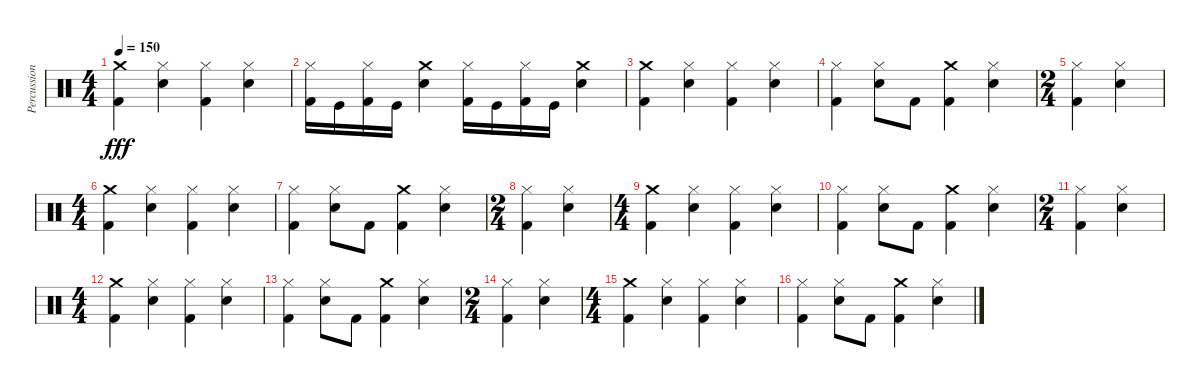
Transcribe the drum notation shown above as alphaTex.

\track ("Percussion" "Percussion") {instrument percussion}
\staff {score}
\articulation defaults
\ts (4 4)
\tempo 150
\clef neutral
\ks c
("Kick (hit) 2" "Crash medium (hit)").4{dy fff} ("Hi-Hat (closed)" "Snare (hit) 2").4 ("Hi-Hat (closed)" "Kick (hit) 2").4 ("Snare (hit) 2" "Hi-Hat (closed)").4 |
("Kick (hit) 2" "Hi-Hat (closed)").16 "Kick (hit)".16 ("Kick (hit) 2" "Hi-Hat (closed)").16 "Kick (hit)".16 ("Snare (hit) 2" "Crash medium (hit)").4 ("Kick (hit) 2" "Hi-Hat (closed)").16 "Kick (hit)".16 ("Kick (hit) 2" "Hi-Hat (closed)").16 "Kick (hit)".16 ("Crash medium (hit)" "Snare (hit) 2").4 |
("Kick (hit) 2" "Crash medium (hit)").4 ("Hi-Hat (closed)" "Snare (hit) 2").4 ("Hi-Hat (closed)" "Kick (hit) 2").4 ("Snare (hit) 2" "Hi-Hat (closed)").4 |
("Hi-Hat (closed)" "Kick (hit) 2").4 ("Snare (hit) 2" "Hi-Hat (closed)").8 "Kick (hit) 2".8 ("Kick (hit) 2" "Crash medium (hit)").4 ("Hi-Hat (closed)" "Snare (hit) 2").4 |
\ts (2 4)
("Hi-Hat (closed)" "Kick (hit) 2").4 ("Snare (hit) 2" "Hi-Hat (closed)").4 |
\ts (4 4)
("Kick (hit) 2" "Crash medium (hit)").4 ("Hi-Hat (closed)" "Snare (hit) 2").4 ("Hi-Hat (closed)" "Kick (hit) 2").4 ("Snare (hit) 2" "Hi-Hat (closed)").4 |
("Hi-Hat (closed)" "Kick (hit) 2").4 ("Snare (hit) 2" "Hi-Hat (closed)").8 "Kick (hit) 2".8 ("Kick (hit) 2" "Crash medium (hit)").4 ("Hi-Hat (closed)" "Snare (hit) 2").4 |
\ts (2 4)
("Hi-Hat (closed)" "Kick (hit) 2").4 ("Snare (hit) 2" "Hi-Hat (closed)").4 |
\ts (4 4)
("Kick (hit) 2" "Crash medium (hit)").4 ("Hi-Hat (closed)" "Snare (hit) 2").4 ("Hi-Hat (closed)" "Kick (hit) 2").4 ("Snare (hit) 2" "Hi-Hat (closed)").4 |
("Hi-Hat (closed)" "Kick (hit) 2").4 ("Snare (hit) 2" "Hi-Hat (closed)").8 "Kick (hit) 2".8 ("Kick (hit) 2" "Crash medium (hit)").4 ("Hi-Hat (closed)" "Snare (hit) 2").4 |
\ts (2 4)
("Hi-Hat (closed)" "Kick (hit) 2").4 ("Snare (hit) 2" "Hi-Hat (closed)").4 |
\ts (4 4)
("Kick (hit) 2" "Crash medium (hit)").4 ("Hi-Hat (closed)" "Snare (hit) 2").4 ("Hi-Hat (closed)" "Kick (hit) 2").4 ("Snare (hit) 2" "Hi-Hat (closed)").4 |
("Hi-Hat (closed)" "Kick (hit) 2").4 ("Snare (hit) 2" "Hi-Hat (closed)").8 "Kick (hit) 2".8 ("Kick (hit) 2" "Crash medium (hit)").4 ("Hi-Hat (closed)" "Snare (hit) 2").4 |
\ts (2 4)
("Hi-Hat (closed)" "Kick (hit) 2").4 ("Snare (hit) 2" "Hi-Hat (closed)").4 |
\ts (4 4)
("Kick (hit) 2" "Crash medium (hit)").4 ("Hi-Hat (closed)" "Snare (hit) 2").4 ("Hi-Hat (closed)" "Kick (hit) 2").4 ("Snare (hit) 2" "Hi-Hat (closed)").4 |
("Hi-Hat (closed)" "Kick (hit) 2").4 ("Snare (hit) 2" "Hi-Hat (closed)").8 "Kick (hit) 2".8 ("Kick (hit) 2" "Crash medium (hit)").4 ("Hi-Hat (closed)" "Snare (hit) 2").4
